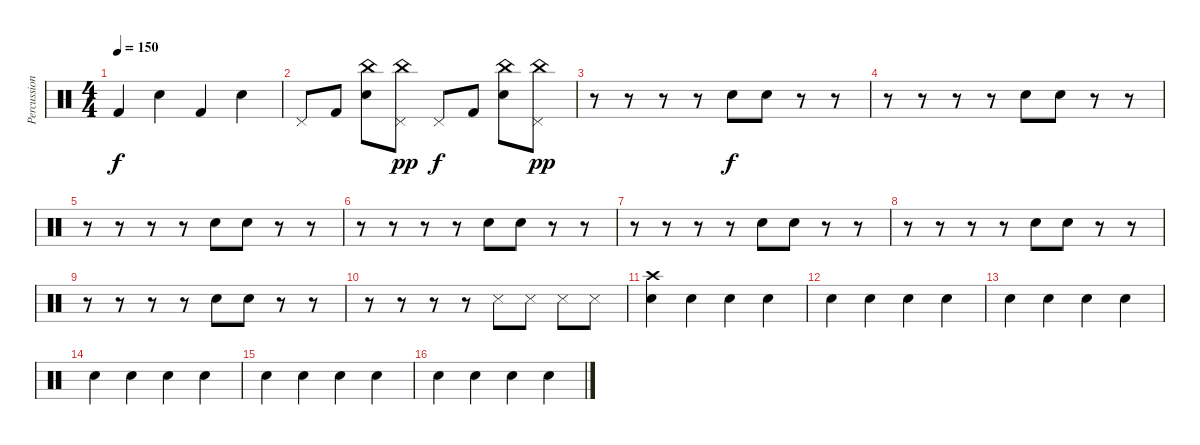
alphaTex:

\track ("Percussion" "Percussion") {instrument percussion}
\staff {score}
\articulation defaults
\ts (4 4)
\tempo 150
\clef neutral
\ks c "Kick (hit) 2".4{dy f} "Electric Snare (hit)".4 "Kick (hit) 2".4 "Electric Snare (hit)".4
|
"Pedal Hi-Hat (hit)".8 "Kick (hit) 2".8 ("China (hit)" "Electric Snare (hit)").8 ("Pedal Hi-Hat (hit)" "China (hit)").8{dy pp} "Pedal Hi-Hat (hit)".8{dy f} "Kick (hit) 2".8 ("China (hit)" "Electric Snare (hit)").8 ("Pedal Hi-Hat (hit)" "China (hit)").8{dy pp} |
r.8 r.8 r.8 r.8 "Electric Snare (hit)".8{dy f} "Electric Snare (hit)".8 r.8 r.8 |
r.8 r.8 r.8 r.8 "Electric Snare (hit)".8 "Electric Snare (hit)".8 r.8 r.8 |
r.8 r.8 r.8 r.8 "Electric Snare (hit)".8 "Electric Snare (hit)".8 r.8 r.8 |
r.8 r.8 r.8 r.8 "Electric Snare (hit)".8 "Electric Snare (hit)".8 r.8 r.8 |
r.8 r.8 r.8 r.8 "Electric Snare (hit)".8 "Electric Snare (hit)".8 r.8 r.8 |
r.8 r.8 r.8 r.8 "Electric Snare (hit)".8 "Electric Snare (hit)".8 r.8 r.8 |
r.8 r.8 r.8 r.8 "Electric Snare (hit)".8 "Electric Snare (hit)".8 r.8 r.8 |
r.8 r.8 r.8 r.8 "Snare (side stick) 3".8 "Snare (side stick) 3".8 "Snare (side stick) 3".8 "Snare (side stick) 3".8 |
("Electric Snare (hit)" "Crash high (hit)").4 "Electric Snare (hit)".4 "Electric Snare (hit)".4 "Electric Snare (hit)".4 |
"Electric Snare (hit)".4 "Electric Snare (hit)".4 "Electric Snare (hit)".4 "Electric Snare (hit)".4 |
"Electric Snare (hit)".4 "Electric Snare (hit)".4 "Electric Snare (hit)".4 "Electric Snare (hit)".4 |
"Electric Snare (hit)".4 "Electric Snare (hit)".4 "Electric Snare (hit)".4 "Electric Snare (hit)".4 |
"Electric Snare (hit)".4 "Electric Snare (hit)".4 "Electric Snare (hit)".4 "Electric Snare (hit)".4 |
"Electric Snare (hit)".4 "Electric Snare (hit)".4 "Electric Snare (hit)".4 "Electric Snare (hit)".4
